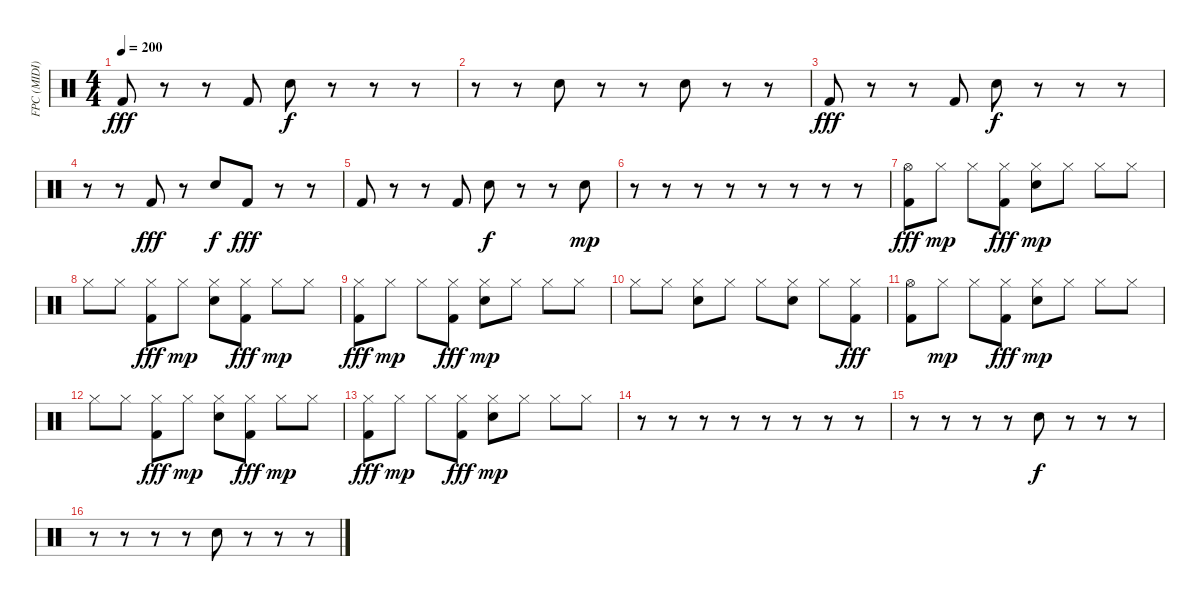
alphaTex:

\track ("FPC (MIDI)" "FPC (MIDI)") {instrument percussion}
\staff {score}
\articulation defaults
\ts (4 4)
\tempo 200
\clef neutral
\ks c "Kick (hit) 2".8{dy fff}
r.8 r.8 "Kick (hit) 2".8 "Hand Clap (hit)".8{dy f} r.8 r.8 r.8 |
r.8 r.8 "Hand Clap (hit)".8 r.8 r.8 "Hand Clap (hit)".8 r.8 r.8 |
"Kick (hit) 2".8{dy fff} r.8 r.8 "Kick (hit) 2".8 "Hand Clap (hit)".8{dy f} r.8 r.8 r.8 |
r.8 r.8 "Kick (hit) 2".8{dy fff} r.8 "Hand Clap (hit)".8{dy f} "Kick (hit) 2".8{dy fff} r.8 r.8 |
"Kick (hit) 2".8 r.8 r.8 "Kick (hit) 2".8 "Hand Clap (hit)".8{dy f} r.8 r.8 "Hand Clap (hit)".8{dy mp} |
r.8 r.8 r.8 r.8 r.8 r.8 r.8 r.8 |
("Hi-Hat (open)" "Kick (hit) 2").8{dy fff} "Hi-Hat (closed)".8{dy mp} "Hi-Hat (closed)".8 ("Hi-Hat (closed)" "Kick (hit) 2").8{dy fff} ("Hi-Hat (closed)" "Hand Clap (hit)").8{dy mp} "Hi-Hat (closed)".8 "Hi-Hat (closed)".8 "Hi-Hat (closed)".8 |
"Hi-Hat (closed)".8 "Hi-Hat (closed)".8 ("Hi-Hat (closed)" "Kick (hit) 2").8{dy fff} "Hi-Hat (closed)".8{dy mp} ("Hi-Hat (closed)" "Hand Clap (hit)").8 ("Hi-Hat (closed)" "Kick (hit) 2").8{dy fff} "Hi-Hat (closed)".8{dy mp} "Hi-Hat (closed)".8 |
("Hi-Hat (closed)" "Kick (hit) 2").8{dy fff} "Hi-Hat (closed)".8{dy mp} "Hi-Hat (closed)".8 ("Hi-Hat (closed)" "Kick (hit) 2").8{dy fff} ("Hi-Hat (closed)" "Hand Clap (hit)").8{dy mp} "Hi-Hat (closed)".8 "Hi-Hat (closed)".8 "Hi-Hat (closed)".8 |
"Hi-Hat (closed)".8 "Hi-Hat (closed)".8 ("Hi-Hat (closed)" "Hand Clap (hit)").8 "Hi-Hat (closed)".8 "Hi-Hat (closed)".8 ("Hi-Hat (closed)" "Hand Clap (hit)").8 "Hi-Hat (closed)".8 ("Hi-Hat (closed)" "Kick (hit) 2").8{dy fff} |
("Hi-Hat (open)" "Kick (hit) 2").8 "Hi-Hat (closed)".8{dy mp} "Hi-Hat (closed)".8 ("Hi-Hat (closed)" "Kick (hit) 2").8{dy fff} ("Hi-Hat (closed)" "Hand Clap (hit)").8{dy mp} "Hi-Hat (closed)".8 "Hi-Hat (closed)".8 "Hi-Hat (closed)".8 |
"Hi-Hat (closed)".8 "Hi-Hat (closed)".8 ("Hi-Hat (closed)" "Kick (hit) 2").8{dy fff} "Hi-Hat (closed)".8{dy mp} ("Hi-Hat (closed)" "Hand Clap (hit)").8 ("Hi-Hat (closed)" "Kick (hit) 2").8{dy fff} "Hi-Hat (closed)".8{dy mp} "Hi-Hat (closed)".8 |
("Hi-Hat (closed)" "Kick (hit) 2").8{dy fff} "Hi-Hat (closed)".8{dy mp} "Hi-Hat (closed)".8 ("Hi-Hat (closed)" "Kick (hit) 2").8{dy fff} ("Hi-Hat (closed)" "Hand Clap (hit)").8{dy mp} "Hi-Hat (closed)".8 "Hi-Hat (closed)".8 "Hi-Hat (closed)".8 |
r.8 r.8 r.8 r.8 r.8 r.8 r.8 r.8 |
r.8 r.8 r.8 r.8 "Hand Clap (hit)".8{dy f} r.8 r.8 r.8 |
r.8 r.8 r.8 r.8 "Hand Clap (hit)".8 r.8 r.8 r.8
